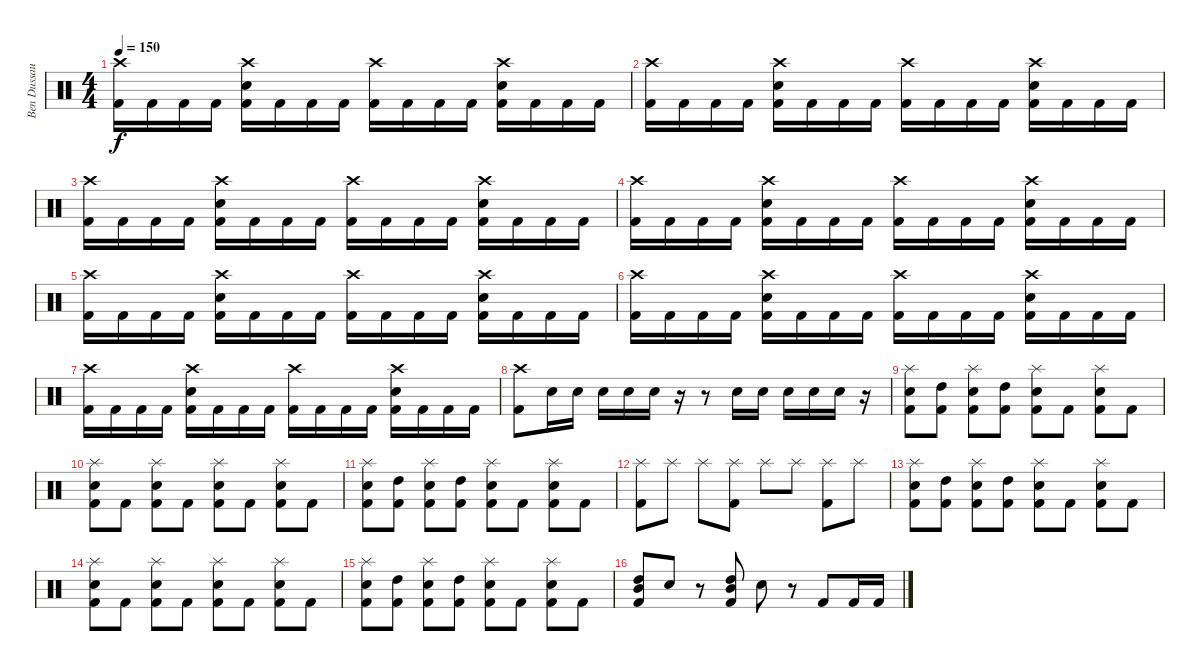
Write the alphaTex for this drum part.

\track ("Ben Dussault" "Ben Dussau") {instrument percussion}
\staff {score}
\articulation defaults
\ts (4 4)
\tempo 150
\clef neutral
\ks c
("Crash high (hit)" "Kick (hit) 2").16{dy f} "Kick (hit) 2".16 "Kick (hit) 2".16 "Kick (hit) 2".16 ("Crash high (hit)" "Snare (hit) 2" "Kick (hit) 2").16 "Kick (hit) 2".16 "Kick (hit) 2".16 "Kick (hit) 2".16 ("Crash high (hit)" "Kick (hit) 2").16 "Kick (hit) 2".16 "Kick (hit) 2".16 "Kick (hit) 2".16 ("Crash high (hit)" "Snare (hit) 2" "Kick (hit) 2").16 "Kick (hit) 2".16 "Kick (hit) 2".16 "Kick (hit) 2".16 |
("Crash high (hit)" "Kick (hit) 2").16 "Kick (hit) 2".16 "Kick (hit) 2".16 "Kick (hit) 2".16 ("Crash high (hit)" "Snare (hit) 2" "Kick (hit) 2").16 "Kick (hit) 2".16 "Kick (hit) 2".16 "Kick (hit) 2".16 ("Crash high (hit)" "Kick (hit) 2").16 "Kick (hit) 2".16 "Kick (hit) 2".16 "Kick (hit) 2".16 ("Crash high (hit)" "Snare (hit) 2" "Kick (hit) 2").16 "Kick (hit) 2".16 "Kick (hit) 2".16 "Kick (hit) 2".16 |
("Crash high (hit)" "Kick (hit) 2").16 "Kick (hit) 2".16 "Kick (hit) 2".16 "Kick (hit) 2".16 ("Crash high (hit)" "Snare (hit) 2" "Kick (hit) 2").16 "Kick (hit) 2".16 "Kick (hit) 2".16 "Kick (hit) 2".16 ("Crash high (hit)" "Kick (hit) 2").16 "Kick (hit) 2".16 "Kick (hit) 2".16 "Kick (hit) 2".16 ("Crash high (hit)" "Snare (hit) 2" "Kick (hit) 2").16 "Kick (hit) 2".16 "Kick (hit) 2".16 "Kick (hit) 2".16 |
("Crash high (hit)" "Kick (hit) 2").16 "Kick (hit) 2".16 "Kick (hit) 2".16 "Kick (hit) 2".16 ("Crash high (hit)" "Snare (hit) 2" "Kick (hit) 2").16 "Kick (hit) 2".16 "Kick (hit) 2".16 "Kick (hit) 2".16 ("Crash high (hit)" "Kick (hit) 2").16 "Kick (hit) 2".16 "Kick (hit) 2".16 "Kick (hit) 2".16 ("Crash high (hit)" "Snare (hit) 2" "Kick (hit) 2").16 "Kick (hit) 2".16 "Kick (hit) 2".16 "Kick (hit) 2".16 |
("Crash high (hit)" "Kick (hit) 2").16 "Kick (hit) 2".16 "Kick (hit) 2".16 "Kick (hit) 2".16 ("Crash high (hit)" "Snare (hit) 2" "Kick (hit) 2").16 "Kick (hit) 2".16 "Kick (hit) 2".16 "Kick (hit) 2".16 ("Crash high (hit)" "Kick (hit) 2").16 "Kick (hit) 2".16 "Kick (hit) 2".16 "Kick (hit) 2".16 ("Crash high (hit)" "Snare (hit) 2" "Kick (hit) 2").16 "Kick (hit) 2".16 "Kick (hit) 2".16 "Kick (hit) 2".16 |
("Crash high (hit)" "Kick (hit) 2").16 "Kick (hit) 2".16 "Kick (hit) 2".16 "Kick (hit) 2".16 ("Crash high (hit)" "Snare (hit) 2" "Kick (hit) 2").16 "Kick (hit) 2".16 "Kick (hit) 2".16 "Kick (hit) 2".16 ("Crash high (hit)" "Kick (hit) 2").16 "Kick (hit) 2".16 "Kick (hit) 2".16 "Kick (hit) 2".16 ("Crash high (hit)" "Snare (hit) 2" "Kick (hit) 2").16 "Kick (hit) 2".16 "Kick (hit) 2".16 "Kick (hit) 2".16 |
("Crash high (hit)" "Kick (hit) 2").16 "Kick (hit) 2".16 "Kick (hit) 2".16 "Kick (hit) 2".16 ("Crash high (hit)" "Snare (hit) 2" "Kick (hit) 2").16 "Kick (hit) 2".16 "Kick (hit) 2".16 "Kick (hit) 2".16 ("Crash high (hit)" "Kick (hit) 2").16 "Kick (hit) 2".16 "Kick (hit) 2".16 "Kick (hit) 2".16 ("Crash high (hit)" "Snare (hit) 2" "Kick (hit) 2").16 "Kick (hit) 2".16 "Kick (hit) 2".16 "Kick (hit) 2".16 |
("Crash high (hit)" "Kick (hit) 2").8 "Snare (hit) 2".16 "Snare (hit) 2".16 "Snare (hit) 2".16 "Snare (hit) 2".16 "Snare (hit) 2".16 r.16 r.8 "Snare (hit) 2".16 "Snare (hit) 2".16 "Snare (hit) 2".16 "Snare (hit) 2".16 "Snare (hit) 2".16 r.16 |
("Splash (hit)" "Snare (hit) 2" "Kick (hit) 2").8 ("High Tom (hit)" "Kick (hit) 2").8 ("Splash (hit)" "Snare (hit) 2" "Kick (hit) 2").8 ("High Tom (hit)" "Kick (hit) 2").8 ("Splash (hit)" "Snare (hit) 2" "Kick (hit) 2").8 "Kick (hit) 2".8 ("Splash (hit)" "Snare (hit) 2" "Kick (hit) 2").8 "Kick (hit) 2".8 |
("Splash (hit)" "Snare (hit) 2" "Kick (hit) 2").8 "Kick (hit) 2".8 ("Splash (hit)" "Snare (hit) 2" "Kick (hit) 2").8 "Kick (hit) 2".8 ("Splash (hit)" "Snare (hit) 2" "Kick (hit) 2").8 "Kick (hit) 2".8 ("Splash (hit)" "Snare (hit) 2" "Kick (hit) 2").8 "Kick (hit) 2".8 |
("Splash (hit)" "Snare (hit) 2" "Kick (hit) 2").8 ("High Tom (hit)" "Kick (hit) 2").8 ("Splash (hit)" "Snare (hit) 2" "Kick (hit) 2").8 ("High Tom (hit)" "Kick (hit) 2").8 ("Splash (hit)" "Snare (hit) 2" "Kick (hit) 2").8 "Kick (hit) 2".8 ("Splash (hit)" "Snare (hit) 2" "Kick (hit) 2").8 "Kick (hit) 2".8 |
("Splash (hit)" "Kick (hit) 2").8 "Splash (hit)".8 "Splash (hit)".8 ("Splash (hit)" "Kick (hit) 2").8 "Splash (hit)".8 "Splash (hit)".8 ("Splash (hit)" "Kick (hit) 2").8 "Splash (hit)".8 |
("Splash (hit)" "Snare (hit) 2" "Kick (hit) 2").8 ("High Tom (hit)" "Kick (hit) 2").8 ("Splash (hit)" "Snare (hit) 2" "Kick (hit) 2").8 ("High Tom (hit)" "Kick (hit) 2").8 ("Splash (hit)" "Snare (hit) 2" "Kick (hit) 2").8 "Kick (hit) 2".8 ("Splash (hit)" "Snare (hit) 2" "Kick (hit) 2").8 "Kick (hit) 2".8 |
("Splash (hit)" "Snare (hit) 2" "Kick (hit) 2").8 "Kick (hit) 2".8 ("Splash (hit)" "Snare (hit) 2" "Kick (hit) 2").8 "Kick (hit) 2".8 ("Splash (hit)" "Snare (hit) 2" "Kick (hit) 2").8 "Kick (hit) 2".8 ("Splash (hit)" "Snare (hit) 2" "Kick (hit) 2").8 "Kick (hit) 2".8 |
("Splash (hit)" "Snare (hit) 2" "Kick (hit) 2").8 ("High Tom (hit)" "Kick (hit) 2").8 ("Splash (hit)" "Snare (hit) 2" "Kick (hit) 2").8 ("High Tom (hit)" "Kick (hit) 2").8 ("Splash (hit)" "Snare (hit) 2" "Kick (hit) 2").8 "Kick (hit) 2".8 ("Splash (hit)" "Snare (hit) 2" "Kick (hit) 2").8 "Kick (hit) 2".8 |
("Mid Tom (hit)" "High Tom (hit)" "Kick (hit) 2").8 "Snare (hit) 2".8 r.8 ("Mid Tom (hit)" "High Tom (hit)" "Kick (hit) 2").8 "Snare (hit) 2".8 r.8 "Kick (hit) 2".8 "Kick (hit) 2".16 "Kick (hit) 2".16
